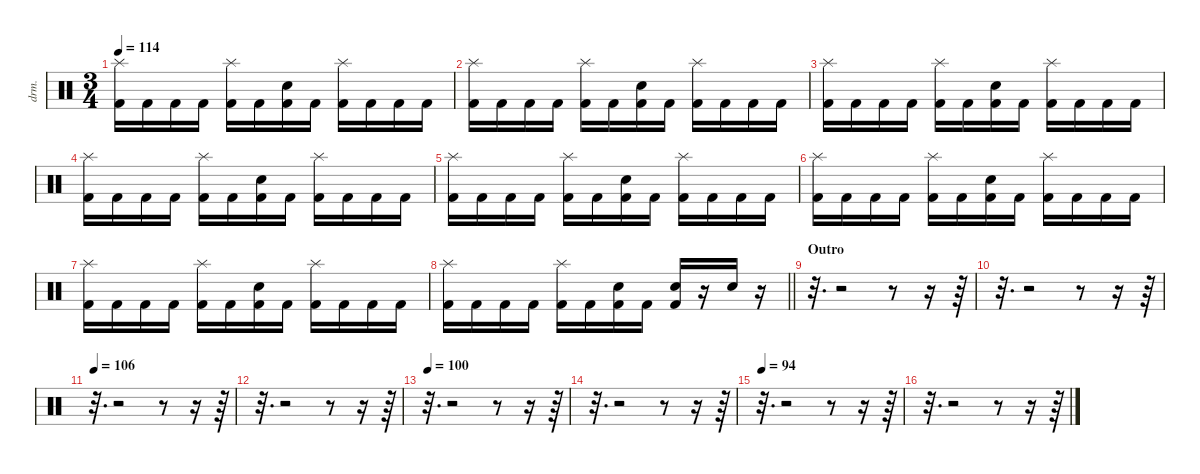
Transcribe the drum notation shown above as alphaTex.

\defaultSystemsLayout 4
\hideDynamics
\bracketExtendMode nobrackets
\otherSystemsTrackNameOrientation horizontal
\track ("Drums" "drm.") {instrument percussion}
\staff {score}
\articulation defaults
\ts (3 4)
\tempo 114
\clef neutral
\ks c
("Splash (hit)" "Kick (hit) 2").16{dy f} "Kick (hit) 2".16 "Kick (hit) 2".16 "Kick (hit) 2".16 ("Splash (hit)" "Kick (hit) 2").16 "Kick (hit) 2".16 ("Snare (hit) 2" "Kick (hit) 2").16 "Kick (hit) 2".16 ("Splash (hit)" "Kick (hit) 2").16 "Kick (hit) 2".16 "Kick (hit) 2".16 "Kick (hit) 2".16 |
("Splash (hit)" "Kick (hit) 2").16 "Kick (hit) 2".16 "Kick (hit) 2".16 "Kick (hit) 2".16 ("Splash (hit)" "Kick (hit) 2").16 "Kick (hit) 2".16 ("Snare (hit) 2" "Kick (hit) 2").16 "Kick (hit) 2".16 ("Splash (hit)" "Kick (hit) 2").16 "Kick (hit) 2".16 "Kick (hit) 2".16 "Kick (hit) 2".16 |
("Splash (hit)" "Kick (hit) 2").16 "Kick (hit) 2".16 "Kick (hit) 2".16 "Kick (hit) 2".16 ("Splash (hit)" "Kick (hit) 2").16 "Kick (hit) 2".16 ("Snare (hit) 2" "Kick (hit) 2").16 "Kick (hit) 2".16 ("Splash (hit)" "Kick (hit) 2").16 "Kick (hit) 2".16 "Kick (hit) 2".16 "Kick (hit) 2".16 |
("Splash (hit)" "Kick (hit) 2").16 "Kick (hit) 2".16 "Kick (hit) 2".16 "Kick (hit) 2".16 ("Splash (hit)" "Kick (hit) 2").16 "Kick (hit) 2".16 ("Snare (hit) 2" "Kick (hit) 2").16 "Kick (hit) 2".16 ("Splash (hit)" "Kick (hit) 2").16 "Kick (hit) 2".16 "Kick (hit) 2".16 "Kick (hit) 2".16 |
("Splash (hit)" "Kick (hit) 2").16 "Kick (hit) 2".16 "Kick (hit) 2".16 "Kick (hit) 2".16 ("Splash (hit)" "Kick (hit) 2").16 "Kick (hit) 2".16 ("Snare (hit) 2" "Kick (hit) 2").16 "Kick (hit) 2".16 ("Splash (hit)" "Kick (hit) 2").16 "Kick (hit) 2".16 "Kick (hit) 2".16 "Kick (hit) 2".16 |
("Splash (hit)" "Kick (hit) 2").16 "Kick (hit) 2".16 "Kick (hit) 2".16 "Kick (hit) 2".16 ("Splash (hit)" "Kick (hit) 2").16 "Kick (hit) 2".16 ("Snare (hit) 2" "Kick (hit) 2").16 "Kick (hit) 2".16 ("Splash (hit)" "Kick (hit) 2").16 "Kick (hit) 2".16 "Kick (hit) 2".16 "Kick (hit) 2".16 |
("Splash (hit)" "Kick (hit) 2").16 "Kick (hit) 2".16 "Kick (hit) 2".16 "Kick (hit) 2".16 ("Splash (hit)" "Kick (hit) 2").16 "Kick (hit) 2".16 ("Snare (hit) 2" "Kick (hit) 2").16 "Kick (hit) 2".16 ("Splash (hit)" "Kick (hit) 2").16 "Kick (hit) 2".16 "Kick (hit) 2".16 "Kick (hit) 2".16 |
\barLineRight lightlight
("Splash (hit)" "Kick (hit) 2").16 "Kick (hit) 2".16 "Kick (hit) 2".16 "Kick (hit) 2".16 ("Splash (hit)" "Kick (hit) 2").16 "Kick (hit) 2".16 ("Snare (hit) 2" "Kick (hit) 2").16 "Kick (hit) 2".16 ("Snare (hit) 2" "Kick (hit) 2").16 r.16 "Snare (hit) 2".16 r.16 |
\section ("" "Outro")
r.32{d} r.2 r.8 r.16 r.64 |
r.32{d} r.2 r.8 r.16 r.64 |
\tempo 106
r.32{d} r.2 r.8 r.16 r.64 |
r.32{d} r.2 r.8 r.16 r.64 |
\tempo 100
r.32{d} r.2 r.8 r.16 r.64 |
r.32{d} r.2 r.8 r.16 r.64 |
\tempo 94
r.32{d} r.2 r.8 r.16 r.64 |
r.32{d} r.2 r.8 r.16 r.64
